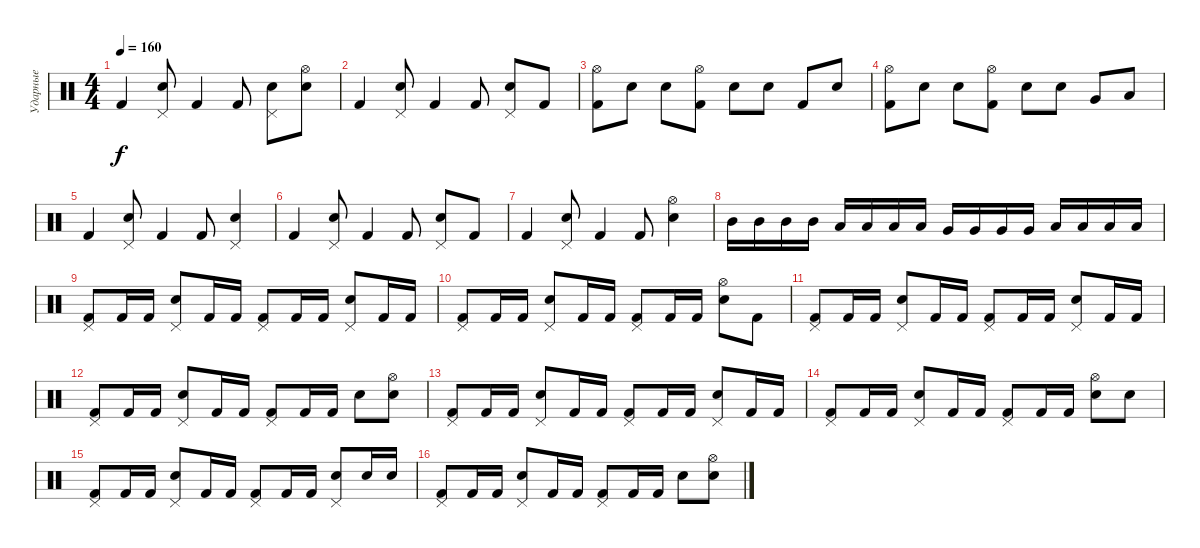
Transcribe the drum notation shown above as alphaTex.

\track ("Ударные" "Ударные") {instrument percussion}
\staff {score}
\articulation defaults
\ts (4 4)
\tempo 160
\clef neutral
\ks c "Kick (hit) 2".4{dy f}
("Snare (hit) 2" "Pedal Hi-Hat (hit)").8 "Kick (hit) 2".4 "Kick (hit) 2".8 ("Snare (hit) 2" "Pedal Hi-Hat (hit)").8 ("Snare (hit) 2" "Hi-Hat (open)").8 |
"Kick (hit) 2".4 ("Snare (hit) 2" "Pedal Hi-Hat (hit)").8 "Kick (hit) 2".4 "Kick (hit) 2".8 ("Snare (hit) 2" "Pedal Hi-Hat (hit)").8 "Kick (hit) 2".8 |
("Kick (hit) 2" "Hi-Hat (open)").8 "Snare (hit) 2".8 "Snare (hit) 2".8 ("Kick (hit) 2" "Hi-Hat (open)").8 "Snare (hit) 2".8 "Snare (hit) 2".8 "Kick (hit) 2".8 "Snare (hit) 2".8 |
("Kick (hit) 2" "Hi-Hat (open)").8 "Snare (hit) 2".8 "Snare (hit) 2".8 ("Kick (hit) 2" "Hi-Hat (open)").8 "Snare (hit) 2".8 "Snare (hit) 2".8 "Very Low Tom (hit)".8 "Low Floor Tom (hit)".8 |
"Kick (hit) 2".4 ("Snare (hit) 2" "Pedal Hi-Hat (hit)").8 "Kick (hit) 2".4 "Kick (hit) 2".8 ("Snare (hit) 2" "Pedal Hi-Hat (hit)").4 |
"Kick (hit) 2".4 ("Snare (hit) 2" "Pedal Hi-Hat (hit)").8 "Kick (hit) 2".4 "Kick (hit) 2".8 ("Snare (hit) 2" "Pedal Hi-Hat (hit)").8 "Kick (hit) 2".8 |
"Kick (hit) 2".4 ("Snare (hit) 2" "Pedal Hi-Hat (hit)").8 "Kick (hit) 2".4 "Kick (hit) 2".8 ("Snare (hit) 2" "Hi-Hat (open)").4 |
"Mid Tom (hit)".16 "Mid Tom (hit)".16 "Mid Tom (hit)".16 "Mid Tom (hit)".16 "Low Tom (hit)".16 "Low Tom (hit)".16 "Low Tom (hit)".16 "Low Tom (hit)".16 "Very Low Tom (hit)".16 "Very Low Tom (hit)".16 "Very Low Tom (hit)".16 "Very Low Tom (hit)".16 "Low Floor Tom (hit)".16 "Low Floor Tom (hit)".16 "Low Floor Tom (hit)".16 "Low Floor Tom (hit)".16 |
("Kick (hit) 2" "Pedal Hi-Hat (hit)").8 "Kick (hit) 2".16 "Kick (hit) 2".16 ("Snare (hit) 2" "Pedal Hi-Hat (hit)").8 "Kick (hit) 2".16 "Kick (hit) 2".16 ("Kick (hit) 2" "Pedal Hi-Hat (hit)").8 "Kick (hit) 2".16 "Kick (hit) 2".16 ("Snare (hit) 2" "Pedal Hi-Hat (hit)").8 "Kick (hit) 2".16 "Kick (hit) 2".16 |
("Kick (hit) 2" "Pedal Hi-Hat (hit)").8 "Kick (hit) 2".16 "Kick (hit) 2".16 ("Snare (hit) 2" "Pedal Hi-Hat (hit)").8 "Kick (hit) 2".16 "Kick (hit) 2".16 ("Kick (hit) 2" "Pedal Hi-Hat (hit)").8 "Kick (hit) 2".16 "Kick (hit) 2".16 ("Snare (hit) 2" "Hi-Hat (open)").8 "Kick (hit) 2".8 |
("Kick (hit) 2" "Pedal Hi-Hat (hit)").8 "Kick (hit) 2".16 "Kick (hit) 2".16 ("Snare (hit) 2" "Pedal Hi-Hat (hit)").8 "Kick (hit) 2".16 "Kick (hit) 2".16 ("Kick (hit) 2" "Pedal Hi-Hat (hit)").8 "Kick (hit) 2".16 "Kick (hit) 2".16 ("Snare (hit) 2" "Pedal Hi-Hat (hit)").8 "Kick (hit) 2".16 "Kick (hit) 2".16 |
("Kick (hit) 2" "Pedal Hi-Hat (hit)").8 "Kick (hit) 2".16 "Kick (hit) 2".16 ("Snare (hit) 2" "Pedal Hi-Hat (hit)").8 "Kick (hit) 2".16 "Kick (hit) 2".16 ("Kick (hit) 2" "Pedal Hi-Hat (hit)").8 "Kick (hit) 2".16 "Kick (hit) 2".16 "Snare (hit) 2".8 ("Snare (hit) 2" "Hi-Hat (open)").8 |
("Kick (hit) 2" "Pedal Hi-Hat (hit)").8 "Kick (hit) 2".16 "Kick (hit) 2".16 ("Snare (hit) 2" "Pedal Hi-Hat (hit)").8 "Kick (hit) 2".16 "Kick (hit) 2".16 ("Kick (hit) 2" "Pedal Hi-Hat (hit)").8 "Kick (hit) 2".16 "Kick (hit) 2".16 ("Snare (hit) 2" "Pedal Hi-Hat (hit)").8 "Kick (hit) 2".16 "Kick (hit) 2".16 |
("Kick (hit) 2" "Pedal Hi-Hat (hit)").8 "Kick (hit) 2".16 "Kick (hit) 2".16 ("Snare (hit) 2" "Pedal Hi-Hat (hit)").8 "Kick (hit) 2".16 "Kick (hit) 2".16 ("Kick (hit) 2" "Pedal Hi-Hat (hit)").8 "Kick (hit) 2".16 "Kick (hit) 2".16 ("Snare (hit) 2" "Hi-Hat (open)").8 "Snare (hit) 2".8 |
("Kick (hit) 2" "Pedal Hi-Hat (hit)").8 "Kick (hit) 2".16 "Kick (hit) 2".16 ("Snare (hit) 2" "Pedal Hi-Hat (hit)").8 "Kick (hit) 2".16 "Kick (hit) 2".16 ("Kick (hit) 2" "Pedal Hi-Hat (hit)").8 "Kick (hit) 2".16 "Kick (hit) 2".16 ("Snare (hit) 2" "Pedal Hi-Hat (hit)").8 "Snare (hit) 2".16 "Snare (hit) 2".16 |
("Kick (hit) 2" "Pedal Hi-Hat (hit)").8 "Kick (hit) 2".16 "Kick (hit) 2".16 ("Snare (hit) 2" "Pedal Hi-Hat (hit)").8 "Kick (hit) 2".16 "Kick (hit) 2".16 ("Kick (hit) 2" "Pedal Hi-Hat (hit)").8 "Kick (hit) 2".16 "Kick (hit) 2".16 "Snare (hit) 2".8 ("Snare (hit) 2" "Hi-Hat (open)").8
